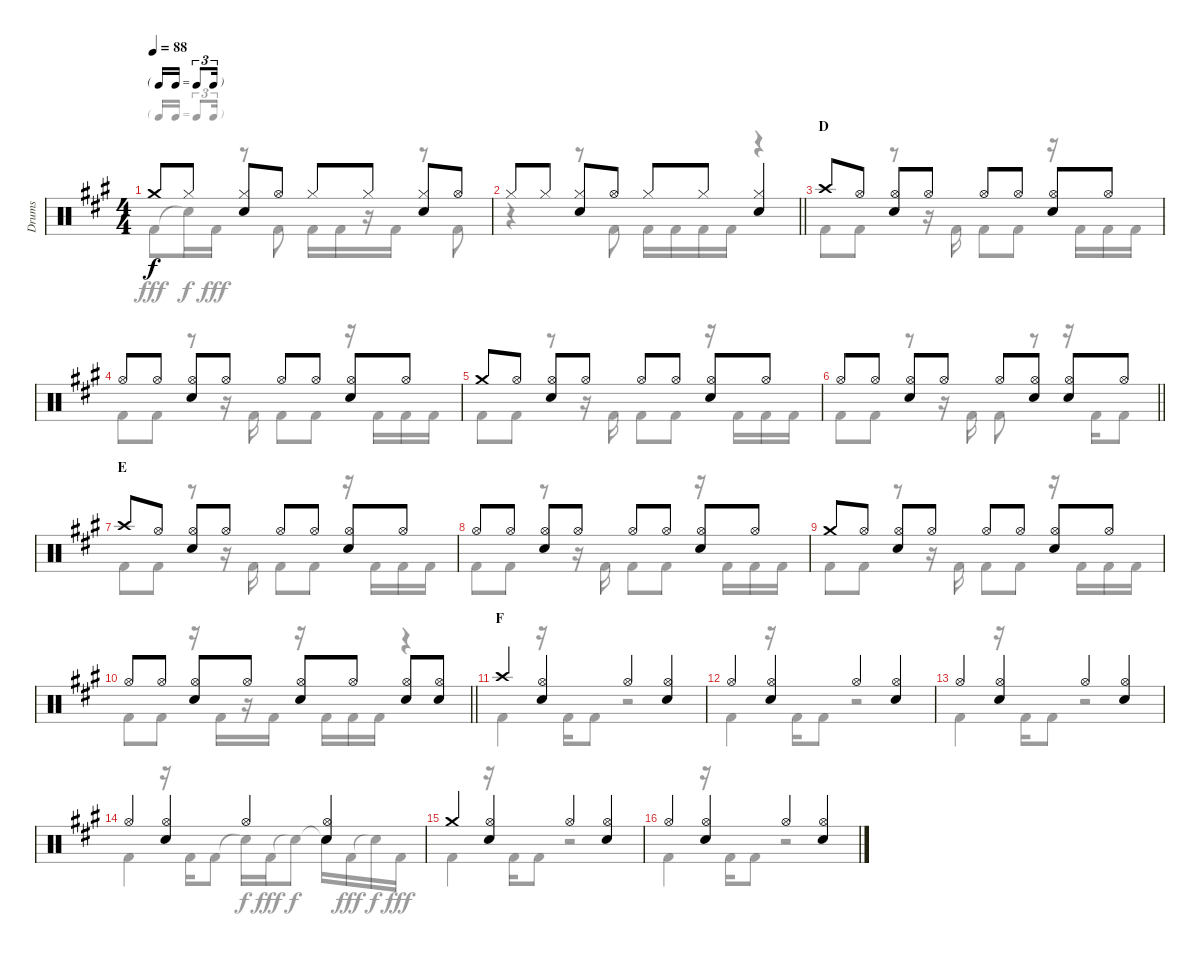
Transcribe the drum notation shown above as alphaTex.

\track ("Drums" "Drums") {instrument percussion}
\staff {score}
\articulation defaults
\voice
\ts (4 4)
\tf triplet16th
\tempo 88
\clef neutral
\ks a "Crash medium (hit)".8{dy f} "Hi-Hat (closed)".8
("Hi-Hat (closed)" "Snare (hit) 2").8 "Hi-Hat (open)".8 "Hi-Hat (closed)".8 "Hi-Hat (closed)".8 ("Hi-Hat (closed)" "Snare (hit) 2").8 "Hi-Hat (open)".8 |
\barLineRight lightlight "Hi-Hat (closed)".8 "Hi-Hat (closed)".8
("Hi-Hat (closed)" "Snare (hit) 2").8 "Hi-Hat (open)".8 "Hi-Hat (closed)".8 "Hi-Hat (closed)".8 ("Hi-Hat (closed)" "Snare (hit) 2").4 |
\section ("" "D")
"Crash high (hit)".8 "Hi-Hat (open)".8 ("Hi-Hat (open)" "Snare (hit) 2").8 "Hi-Hat (open)".8 "Hi-Hat (open)".8 "Hi-Hat (open)".8 ("Hi-Hat (open)" "Snare (hit) 2").8 "Hi-Hat (open)".8 |
"Hi-Hat (open)".8 "Hi-Hat (open)".8 ("Hi-Hat (open)" "Snare (hit) 2").8 "Hi-Hat (open)".8 "Hi-Hat (open)".8 "Hi-Hat (open)".8 ("Hi-Hat (open)" "Snare (hit) 2").8 "Hi-Hat (open)".8 |
"Crash medium (hit)".8 "Hi-Hat (open)".8 ("Hi-Hat (open)" "Snare (hit) 2").8 "Hi-Hat (open)".8 "Hi-Hat (open)".8 "Hi-Hat (open)".8 ("Hi-Hat (open)" "Snare (hit) 2").8 "Hi-Hat (open)".8 |
\barLineRight lightlight "Hi-Hat (open)".8 "Hi-Hat (open)".8
("Hi-Hat (open)" "Snare (hit) 2").8 "Hi-Hat (open)".8 "Hi-Hat (open)".8 ("Hi-Hat (open)" "Snare (hit) 2").8 ("Hi-Hat (open)" "Snare (hit) 2").8 "Hi-Hat (open)".8 |
\section ("" "E")
"Crash high (hit)".8 "Hi-Hat (open)".8 ("Hi-Hat (open)" "Snare (hit) 2").8 "Hi-Hat (open)".8 "Hi-Hat (open)".8 "Hi-Hat (open)".8 ("Hi-Hat (open)" "Snare (hit) 2").8 "Hi-Hat (open)".8 |
"Hi-Hat (open)".8 "Hi-Hat (open)".8 ("Hi-Hat (open)" "Snare (hit) 2").8 "Hi-Hat (open)".8 "Hi-Hat (open)".8 "Hi-Hat (open)".8 ("Hi-Hat (open)" "Snare (hit) 2").8 "Hi-Hat (open)".8 |
"Crash medium (hit)".8 "Hi-Hat (open)".8 ("Hi-Hat (open)" "Snare (hit) 2").8 "Hi-Hat (open)".8 "Hi-Hat (open)".8 "Hi-Hat (open)".8 ("Hi-Hat (open)" "Snare (hit) 2").8 "Hi-Hat (open)".8 |
\barLineRight lightlight "Hi-Hat (open)".8 "Hi-Hat (open)".8
("Hi-Hat (open)" "Snare (hit) 2").8 "Hi-Hat (open)".8 ("Hi-Hat (open)" "Snare (hit) 2").8 "Hi-Hat (open)".8 ("Hi-Hat (open)" "Snare (hit) 2").8 ("Hi-Hat (open)" "Snare (hit) 2").8 |
\section ("" "F")
"Crash high (hit)".4 ("Hi-Hat (open)" "Snare (hit) 2").4 "Hi-Hat (open)".4 ("Hi-Hat (open)" "Snare (hit) 2").4 |
"Hi-Hat (open)".4 ("Hi-Hat (open)" "Snare (hit) 2").4 "Hi-Hat (open)".4 ("Hi-Hat (open)" "Snare (hit) 2").4 |
"Hi-Hat (open)".4 ("Hi-Hat (open)" "Snare (hit) 2").4 "Hi-Hat (open)".4 ("Hi-Hat (open)" "Snare (hit) 2").4 |
"Hi-Hat (open)".4 ("Hi-Hat (open)" "Snare (hit) 2").4 "Hi-Hat (open)".4 ("Hi-Hat (open)" "Snare (hit) 2").4 |
"Crash medium (hit)".4 ("Hi-Hat (open)" "Snare (hit) 2").4 "Hi-Hat (open)".4 ("Hi-Hat (open)" "Snare (hit) 2").4 |
"Hi-Hat (open)".4 ("Hi-Hat (open)" "Snare (hit) 2").4 "Hi-Hat (open)".4 ("Hi-Hat (open)" "Snare (hit) 2").4
\voice
\clef neutral
\ottava regular
\simile none
\ks a "Kick (hit) 2".8{dy fff} "Snare (hit)"{t}.16{dy f} "Kick (hit) 2".16{dy fff}
r.8 "Kick (hit) 2".8 "Kick (hit) 2".16 "Kick (hit) 2".16 r.16 "Kick (hit) 2".16 r.8 "Kick (hit) 2".8 |
\barLineRight lightlight
r.4 r.8 "Kick (hit) 2".8 "Kick (hit) 2".16 "Kick (hit) 2".16 "Kick (hit) 2".16 "Kick (hit) 2".16 r.4 |
"Kick (hit) 2".8 "Kick (hit) 2".8 r.8 r.16 "Kick (hit) 2".16 "Kick (hit) 2".8 "Kick (hit) 2".8 r.16 "Kick (hit) 2".16 "Kick (hit) 2".16 "Kick (hit) 2".16 |
"Kick (hit) 2".8 "Kick (hit) 2".8 r.8 r.16 "Kick (hit) 2".16 "Kick (hit) 2".8 "Kick (hit) 2".8 r.16 "Kick (hit) 2".16 "Kick (hit) 2".16 "Kick (hit) 2".16 |
"Kick (hit) 2".8 "Kick (hit) 2".8 r.8 r.16 "Kick (hit) 2".16 "Kick (hit) 2".8 "Kick (hit) 2".8 r.16 "Kick (hit) 2".16 "Kick (hit) 2".16 "Kick (hit) 2".16 |
\barLineRight lightlight "Kick (hit) 2".8 "Kick (hit) 2".8
r.8 r.16 "Kick (hit) 2".16 "Kick (hit) 2".8 r.8 r.16 "Kick (hit) 2".16 "Kick (hit) 2".8 |
"Kick (hit) 2".8 "Kick (hit) 2".8 r.8 r.16 "Kick (hit) 2".16 "Kick (hit) 2".8 "Kick (hit) 2".8 r.16 "Kick (hit) 2".16 "Kick (hit) 2".16 "Kick (hit) 2".16 |
"Kick (hit) 2".8 "Kick (hit) 2".8 r.8 r.16 "Kick (hit) 2".16 "Kick (hit) 2".8 "Kick (hit) 2".8 r.16 "Kick (hit) 2".16 "Kick (hit) 2".16 "Kick (hit) 2".16 |
"Kick (hit) 2".8 "Kick (hit) 2".8 r.8 r.16 "Kick (hit) 2".16 "Kick (hit) 2".8 "Kick (hit) 2".8 r.16 "Kick (hit) 2".16 "Kick (hit) 2".16 "Kick (hit) 2".16 |
\barLineRight lightlight "Kick (hit) 2".8 "Kick (hit) 2".8
r.16 "Kick (hit) 2".16 r.16 "Kick (hit) 2".16 r.16 "Kick (hit) 2".16 "Kick (hit) 2".16 "Kick (hit) 2".16 r.4 |
"Kick (hit) 2".4 r.16 "Kick (hit) 2".16 "Kick (hit) 2".8 r.2 |
"Kick (hit) 2".4 r.16 "Kick (hit) 2".16 "Kick (hit) 2".8 r.2 |
"Kick (hit) 2".4 r.16 "Kick (hit) 2".16 "Kick (hit) 2".8 r.2 |
"Kick (hit) 2".4 r.16 "Kick (hit) 2".16 "Kick (hit) 2".8 "Snare (hit)"{t}.16{dy f} "Kick (hit) 2".16{dy fff} "Snare (hit)"{t}.8{dy f} "Snare (hit)"{t}.16 "Kick (hit) 2".16{dy fff} "Snare (hit)"{t}.16{dy f} "Kick (hit) 2".16{dy fff} |
"Kick (hit) 2".4 r.16 "Kick (hit) 2".16 "Kick (hit) 2".8 r.2 |
"Kick (hit) 2".4 r.16 "Kick (hit) 2".16 "Kick (hit) 2".8 r.2
